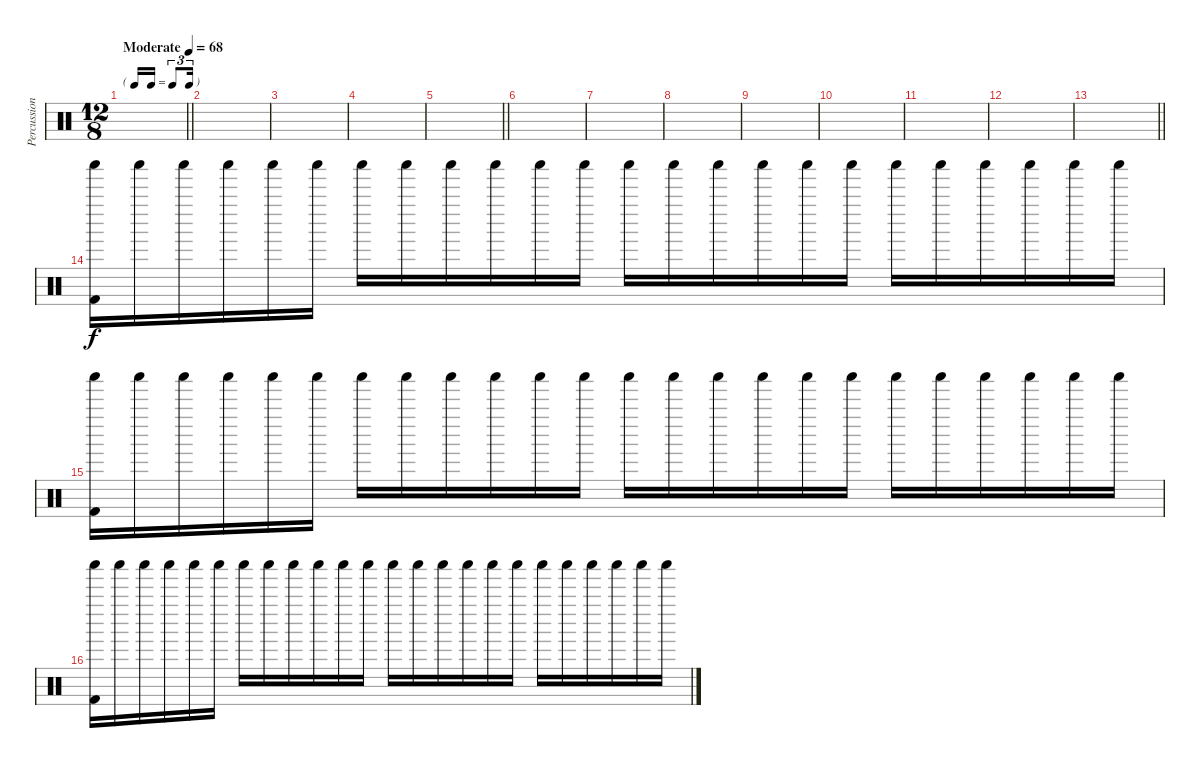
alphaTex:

\track ("Percussion" "Percussion") {instrument percussion}
\staff {score}
\articulation defaults
\ts (12 8)
\tf triplet16th
\tempo (68 "Moderate")
\clef neutral
\barLineRight lightlight
\ks c
|
|
|
|
\barLineRight lightlight
|
|
|
|
|
|
|
|
\barLineRight lightlight
|
("Shaker (hit)" "Kick (hit) 2").16 "Shaker (hit)".16 "Shaker (hit)".16 "Shaker (hit)".16 "Shaker (hit)".16 "Shaker (hit)".16 "Shaker (hit)".16 "Shaker (hit)".16 "Shaker (hit)".16 "Shaker (hit)".16 "Shaker (hit)".16 "Shaker (hit)".16 "Shaker (hit)".16 "Shaker (hit)".16 "Shaker (hit)".16 "Shaker (hit)".16 "Shaker (hit)".16 "Shaker (hit)".16 "Shaker (hit)".16 "Shaker (hit)".16 "Shaker (hit)".16 "Shaker (hit)".16 "Shaker (hit)".16 "Shaker (hit)".16 |
("Shaker (hit)" "Kick (hit) 2").16 "Shaker (hit)".16 "Shaker (hit)".16 "Shaker (hit)".16 "Shaker (hit)".16 "Shaker (hit)".16 "Shaker (hit)".16 "Shaker (hit)".16 "Shaker (hit)".16 "Shaker (hit)".16 "Shaker (hit)".16 "Shaker (hit)".16 "Shaker (hit)".16 "Shaker (hit)".16 "Shaker (hit)".16 "Shaker (hit)".16 "Shaker (hit)".16 "Shaker (hit)".16 "Shaker (hit)".16 "Shaker (hit)".16 "Shaker (hit)".16 "Shaker (hit)".16 "Shaker (hit)".16 "Shaker (hit)".16 |
("Shaker (hit)" "Kick (hit) 2").16 "Shaker (hit)".16 "Shaker (hit)".16 "Shaker (hit)".16 "Shaker (hit)".16 "Shaker (hit)".16 "Shaker (hit)".16 "Shaker (hit)".16 "Shaker (hit)".16 "Shaker (hit)".16 "Shaker (hit)".16 "Shaker (hit)".16 "Shaker (hit)".16 "Shaker (hit)".16 "Shaker (hit)".16 "Shaker (hit)".16 "Shaker (hit)".16 "Shaker (hit)".16 "Shaker (hit)".16 "Shaker (hit)".16 "Shaker (hit)".16 "Shaker (hit)".16 "Shaker (hit)".16 "Shaker (hit)".16
